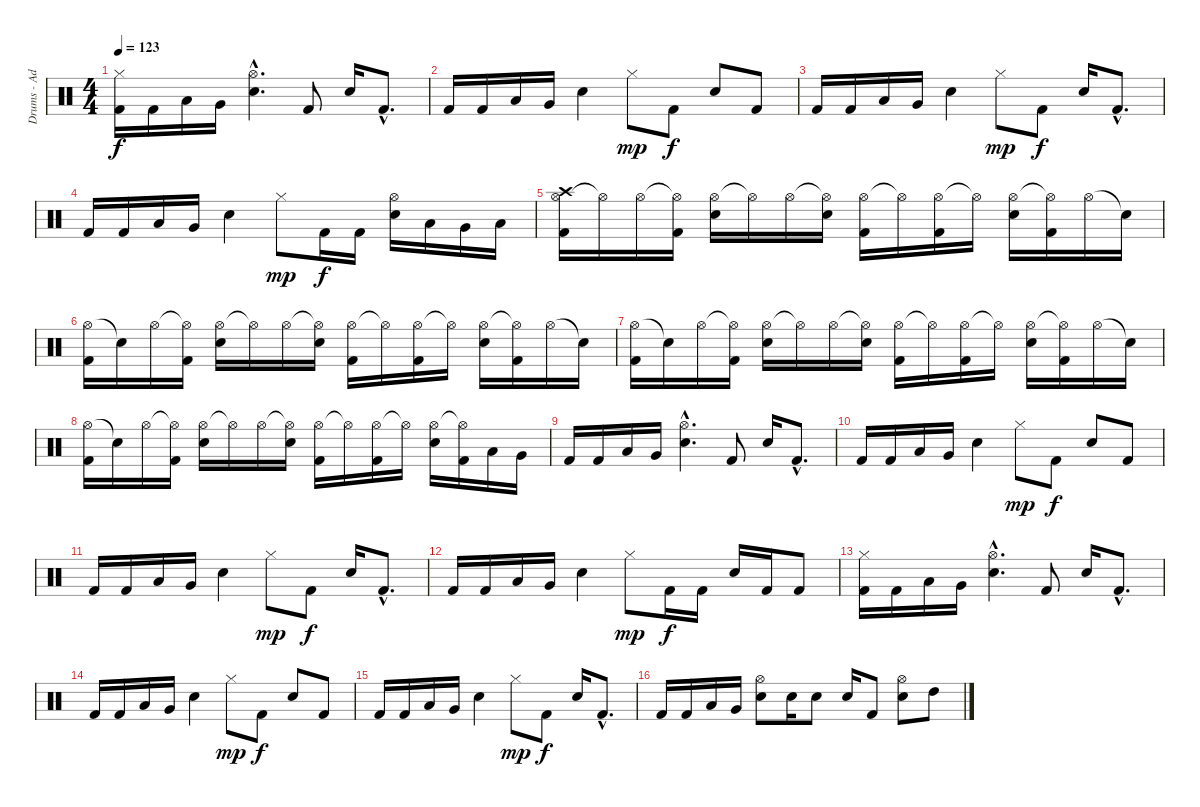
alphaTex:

\track ("Drums - Adam" "Drums - Ad") {instrument percussion}
\staff {score}
\articulation defaults
\ts (4 4)
\tempo 123
\clef neutral
\ks c
("Hi-Hat (closed)" "Kick (hit) 2").16{dy f} "Kick (hit) 2".16 "Low Tom (hit)".16 "Very Low Tom (hit)".16 ("Hi-Hat (open)"{hac} "Electric Snare (hit)"{hac}).4{d} "Kick (hit) 2".8 "Electric Snare (hit)".16 "Kick (hit) 2"{hac}.8{d} |
"Kick (hit) 2".16 "Kick (hit) 2".16 "Low Tom (hit)".16 "Very Low Tom (hit)".16 "Electric Snare (hit)".4 "Hi-Hat (closed)".8{dy mp} "Kick (hit) 2".8{dy f} "Electric Snare (hit)".8 "Kick (hit) 2".8 |
"Kick (hit) 2".16 "Kick (hit) 2".16 "Low Tom (hit)".16 "Very Low Tom (hit)".16 "Electric Snare (hit)".4 "Hi-Hat (closed)".8{dy mp} "Kick (hit) 2".8{dy f} "Electric Snare (hit)".16 "Kick (hit) 2"{hac}.8{d} |
"Kick (hit) 2".16 "Kick (hit) 2".16 "Low Tom (hit)".16 "Very Low Tom (hit)".16 "Electric Snare (hit)".4 "Hi-Hat (closed)".8{dy mp} "Kick (hit) 2".16{dy f} "Kick (hit) 2".16 ("Hi-Hat (open)" "Electric Snare (hit)").16 "Low Tom (hit)".16 "Very Low Tom (hit)".16 "Low Floor Tom (hit)".16 |
("Hi-Hat (open)" "Kick (hit) 2" "Crash high (hit)").16 "Hi-Hat (open)"{t}.16 "Hi-Hat (open)".16 ("Hi-Hat (open)"{t} "Kick (hit) 2").16 ("Hi-Hat (open)" "Electric Snare (hit)").16 "Hi-Hat (open)"{t}.16 "Hi-Hat (open)".16 ("Hi-Hat (open)"{t} "Electric Snare (hit)").16 ("Hi-Hat (open)" "Kick (hit) 2").16 "Hi-Hat (open)"{t}.16 ("Hi-Hat (open)" "Kick (hit) 2").16 "Hi-Hat (open)"{t}.16 ("Hi-Hat (open)" "Electric Snare (hit)").16 ("Hi-Hat (open)"{t} "Kick (hit) 2").16 "Hi-Hat (open)".16 "Snare (hit)"{t}.16 |
("Hi-Hat (open)" "Kick (hit) 2").16 "Snare (hit)"{t}.16 "Hi-Hat (open)".16 ("Hi-Hat (open)"{t} "Kick (hit) 2").16 ("Hi-Hat (open)" "Electric Snare (hit)").16 "Hi-Hat (open)"{t}.16 "Hi-Hat (open)".16 ("Hi-Hat (open)"{t} "Electric Snare (hit)").16 ("Hi-Hat (open)" "Kick (hit) 2").16 "Hi-Hat (open)"{t}.16 ("Hi-Hat (open)" "Kick (hit) 2").16 "Hi-Hat (open)"{t}.16 ("Hi-Hat (open)" "Electric Snare (hit)").16 ("Hi-Hat (open)"{t} "Kick (hit) 2").16 "Hi-Hat (open)".16 "Snare (hit)"{t}.16 |
("Hi-Hat (open)" "Kick (hit) 2").16 "Snare (hit)"{t}.16 "Hi-Hat (open)".16 ("Hi-Hat (open)"{t} "Kick (hit) 2").16 ("Hi-Hat (open)" "Electric Snare (hit)").16 "Hi-Hat (open)"{t}.16 "Hi-Hat (open)".16 ("Hi-Hat (open)"{t} "Electric Snare (hit)").16 ("Hi-Hat (open)" "Kick (hit) 2").16 "Hi-Hat (open)"{t}.16 ("Hi-Hat (open)" "Kick (hit) 2").16 "Hi-Hat (open)"{t}.16 ("Hi-Hat (open)" "Electric Snare (hit)").16 ("Hi-Hat (open)"{t} "Kick (hit) 2").16 "Hi-Hat (open)".16 "Snare (hit)"{t}.16 |
("Hi-Hat (open)" "Kick (hit) 2").16 "Snare (hit)"{t}.16 "Hi-Hat (open)".16 ("Hi-Hat (open)"{t} "Kick (hit) 2").16 ("Hi-Hat (open)" "Electric Snare (hit)").16 "Hi-Hat (open)"{t}.16 "Hi-Hat (open)".16 ("Hi-Hat (open)"{t} "Electric Snare (hit)").16 ("Hi-Hat (open)" "Kick (hit) 2").16 "Hi-Hat (open)"{t}.16 ("Hi-Hat (open)" "Kick (hit) 2").16 "Hi-Hat (open)"{t}.16 ("Hi-Hat (open)" "Electric Snare (hit)").16 ("Hi-Hat (open)"{t} "Kick (hit) 2").16 "Low Tom (hit)".16 "Very Low Tom (hit)".16 |
"Kick (hit) 2".16 "Kick (hit) 2".16 "Low Tom (hit)".16 "Very Low Tom (hit)".16 ("Hi-Hat (open)"{hac} "Electric Snare (hit)"{hac}).4{d} "Kick (hit) 2".8 "Electric Snare (hit)".16 "Kick (hit) 2"{hac}.8{d} |
"Kick (hit) 2".16 "Kick (hit) 2".16 "Low Tom (hit)".16 "Very Low Tom (hit)".16 "Electric Snare (hit)".4 "Hi-Hat (closed)".8{dy mp} "Kick (hit) 2".8{dy f} "Electric Snare (hit)".8 "Kick (hit) 2".8 |
"Kick (hit) 2".16 "Kick (hit) 2".16 "Low Tom (hit)".16 "Very Low Tom (hit)".16 "Electric Snare (hit)".4 "Hi-Hat (closed)".8{dy mp} "Kick (hit) 2".8{dy f} "Electric Snare (hit)".16 "Kick (hit) 2"{hac}.8{d} |
"Kick (hit) 2".16 "Kick (hit) 2".16 "Low Tom (hit)".16 "Very Low Tom (hit)".16 "Electric Snare (hit)".4 "Hi-Hat (closed)".8{dy mp} "Kick (hit) 2".16{dy f} "Kick (hit) 2".16 "Electric Snare (hit)".16 "Kick (hit) 2".16 "Kick (hit) 2".8 |
("Hi-Hat (closed)" "Kick (hit) 2").16 "Kick (hit) 2".16 "Low Tom (hit)".16 "Very Low Tom (hit)".16 ("Hi-Hat (open)"{hac} "Electric Snare (hit)"{hac}).4{d} "Kick (hit) 2".8 "Electric Snare (hit)".16 "Kick (hit) 2"{hac}.8{d} |
"Kick (hit) 2".16 "Kick (hit) 2".16 "Low Tom (hit)".16 "Very Low Tom (hit)".16 "Electric Snare (hit)".4 "Hi-Hat (closed)".8{dy mp} "Kick (hit) 2".8{dy f} "Electric Snare (hit)".8 "Kick (hit) 2".8 |
"Kick (hit) 2".16 "Kick (hit) 2".16 "Low Tom (hit)".16 "Very Low Tom (hit)".16 "Electric Snare (hit)".4 "Hi-Hat (closed)".8{dy mp} "Kick (hit) 2".8{dy f} "Electric Snare (hit)".16 "Kick (hit) 2"{hac}.8{d} |
"Kick (hit) 2".16 "Kick (hit) 2".16 "Low Tom (hit)".16 "Very Low Tom (hit)".16 ("Hi-Hat (open)" "Electric Snare (hit)").8 "Electric Snare (hit)".16 "Electric Snare (hit)".8 "Electric Snare (hit)".16 "Kick (hit) 2".8 ("Hi-Hat (open)" "Electric Snare (hit)").8 "High Tom (hit)".8
